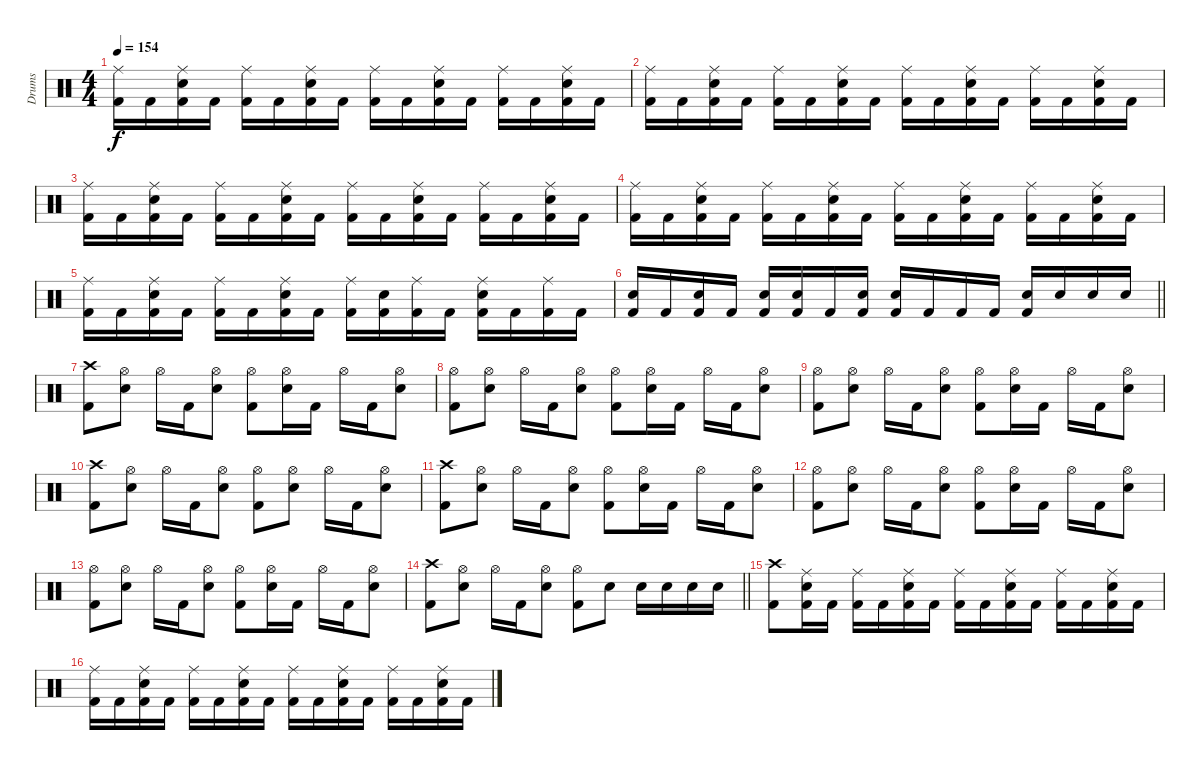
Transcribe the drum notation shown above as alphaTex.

\track ("Drums" "Drums") {instrument percussion}
\staff {score}
\articulation defaults
\ts (4 4)
\tempo 154
\clef neutral
\ks c
("Ride (middle)" "Kick (hit) 2").16{dy f} "Kick (hit) 2".16 ("Ride (middle)" "Snare (hit) 2" "Kick (hit) 2").16 "Kick (hit) 2".16 ("Ride (middle)" "Kick (hit) 2").16 "Kick (hit) 2".16 ("Ride (middle)" "Snare (hit) 2" "Kick (hit) 2").16 "Kick (hit) 2".16 ("Ride (middle)" "Kick (hit) 2").16 "Kick (hit) 2".16 ("Ride (middle)" "Snare (hit) 2" "Kick (hit) 2").16 "Kick (hit) 2".16 ("Ride (middle)" "Kick (hit) 2").16 "Kick (hit) 2".16 ("Ride (middle)" "Snare (hit) 2" "Kick (hit) 2").16 "Kick (hit) 2".16 |
("Ride (middle)" "Kick (hit) 2").16 "Kick (hit) 2".16 ("Ride (middle)" "Snare (hit) 2" "Kick (hit) 2").16 "Kick (hit) 2".16 ("Ride (middle)" "Kick (hit) 2").16 "Kick (hit) 2".16 ("Ride (middle)" "Snare (hit) 2" "Kick (hit) 2").16 "Kick (hit) 2".16 ("Ride (middle)" "Kick (hit) 2").16 "Kick (hit) 2".16 ("Ride (middle)" "Snare (hit) 2" "Kick (hit) 2").16 "Kick (hit) 2".16 ("Ride (middle)" "Kick (hit) 2").16 "Kick (hit) 2".16 ("Ride (middle)" "Snare (hit) 2" "Kick (hit) 2").16 "Kick (hit) 2".16 |
("Ride (middle)" "Kick (hit) 2").16 "Kick (hit) 2".16 ("Ride (middle)" "Snare (hit) 2" "Kick (hit) 2").16 "Kick (hit) 2".16 ("Ride (middle)" "Kick (hit) 2").16 "Kick (hit) 2".16 ("Ride (middle)" "Snare (hit) 2" "Kick (hit) 2").16 "Kick (hit) 2".16 ("Ride (middle)" "Kick (hit) 2").16 "Kick (hit) 2".16 ("Ride (middle)" "Snare (hit) 2" "Kick (hit) 2").16 "Kick (hit) 2".16 ("Ride (middle)" "Kick (hit) 2").16 "Kick (hit) 2".16 ("Ride (middle)" "Snare (hit) 2" "Kick (hit) 2").16 "Kick (hit) 2".16 |
("Ride (middle)" "Kick (hit) 2").16 "Kick (hit) 2".16 ("Ride (middle)" "Snare (hit) 2" "Kick (hit) 2").16 "Kick (hit) 2".16 ("Ride (middle)" "Kick (hit) 2").16 "Kick (hit) 2".16 ("Ride (middle)" "Snare (hit) 2" "Kick (hit) 2").16 "Kick (hit) 2".16 ("Ride (middle)" "Kick (hit) 2").16 "Kick (hit) 2".16 ("Ride (middle)" "Snare (hit) 2" "Kick (hit) 2").16 "Kick (hit) 2".16 ("Ride (middle)" "Kick (hit) 2").16 "Kick (hit) 2".16 ("Ride (middle)" "Snare (hit) 2" "Kick (hit) 2").16 "Kick (hit) 2".16 |
("Ride (middle)" "Kick (hit) 2").16 "Kick (hit) 2".16 ("Ride (middle)" "Snare (hit) 2" "Kick (hit) 2").16 "Kick (hit) 2".16 ("Ride (middle)" "Kick (hit) 2").16 "Kick (hit) 2".16 ("Ride (middle)" "Snare (hit) 2" "Kick (hit) 2").16 "Kick (hit) 2".16 ("Ride (middle)" "Kick (hit) 2").16 ("Snare (hit) 2" "Kick (hit) 2").16 ("Ride (middle)" "Kick (hit) 2").16 "Kick (hit) 2".16 ("Ride (middle)" "Snare (hit) 2" "Kick (hit) 2").16 "Kick (hit) 2".16 ("Ride (middle)" "Kick (hit) 2").16 "Kick (hit) 2".16 |
\barLineRight lightlight
("Snare (hit) 2" "Kick (hit) 2").16 "Kick (hit) 2".16 ("Snare (hit) 2" "Kick (hit) 2").16 "Kick (hit) 2".16 ("Snare (hit) 2" "Kick (hit) 2").16 ("Snare (hit) 2" "Kick (hit) 2").16 "Kick (hit) 2".16 ("Snare (hit) 2" "Kick (hit) 2").16 ("Snare (hit) 2" "Kick (hit) 2").16 "Kick (hit) 2".16 "Kick (hit) 2".16 "Kick (hit) 2".16 ("Snare (hit) 2" "Kick (hit) 2").16 "Snare (hit) 2".16 "Snare (hit) 2".16 "Snare (hit) 2".16 |
("Crash high (hit)" "Kick (hit) 2").8 ("Hi-Hat (open)" "Snare (hit) 2").8 "Hi-Hat (open)".16 "Kick (hit) 2".16 ("Hi-Hat (open)" "Snare (hit) 2").8 ("Hi-Hat (open)" "Kick (hit) 2").8 ("Hi-Hat (open)" "Snare (hit) 2").16 "Kick (hit) 2".16 "Hi-Hat (open)".16 "Kick (hit) 2".16 ("Hi-Hat (open)" "Snare (hit) 2").8 |
("Hi-Hat (open)" "Kick (hit) 2").8 ("Hi-Hat (open)" "Snare (hit) 2").8 "Hi-Hat (open)".16 "Kick (hit) 2".16 ("Hi-Hat (open)" "Snare (hit) 2").8 ("Hi-Hat (open)" "Kick (hit) 2").8 ("Hi-Hat (open)" "Snare (hit) 2").16 "Kick (hit) 2".16 "Hi-Hat (open)".16 "Kick (hit) 2".16 ("Hi-Hat (open)" "Snare (hit) 2").8 |
("Hi-Hat (open)" "Kick (hit) 2").8 ("Hi-Hat (open)" "Snare (hit) 2").8 "Hi-Hat (open)".16 "Kick (hit) 2".16 ("Hi-Hat (open)" "Snare (hit) 2").8 ("Hi-Hat (open)" "Kick (hit) 2").8 ("Hi-Hat (open)" "Snare (hit) 2").16 "Kick (hit) 2".16 "Hi-Hat (open)".16 "Kick (hit) 2".16 ("Hi-Hat (open)" "Snare (hit) 2").8 |
("Crash high (hit)" "Kick (hit) 2").8 ("Hi-Hat (open)" "Snare (hit) 2").8 "Hi-Hat (open)".16 "Kick (hit) 2".16 ("Hi-Hat (open)" "Snare (hit) 2").8 ("Hi-Hat (open)" "Kick (hit) 2").8 ("Hi-Hat (open)" "Snare (hit) 2").8 "Hi-Hat (open)".16 "Kick (hit) 2".16 ("Hi-Hat (open)" "Snare (hit) 2").8 |
("Crash high (hit)" "Kick (hit) 2").8 ("Hi-Hat (open)" "Snare (hit) 2").8 "Hi-Hat (open)".16 "Kick (hit) 2".16 ("Hi-Hat (open)" "Snare (hit) 2").8 ("Hi-Hat (open)" "Kick (hit) 2").8 ("Hi-Hat (open)" "Snare (hit) 2").16 "Kick (hit) 2".16 "Hi-Hat (open)".16 "Kick (hit) 2".16 ("Hi-Hat (open)" "Snare (hit) 2").8 |
("Hi-Hat (open)" "Kick (hit) 2").8 ("Hi-Hat (open)" "Snare (hit) 2").8 "Hi-Hat (open)".16 "Kick (hit) 2".16 ("Hi-Hat (open)" "Snare (hit) 2").8 ("Hi-Hat (open)" "Kick (hit) 2").8 ("Hi-Hat (open)" "Snare (hit) 2").16 "Kick (hit) 2".16 "Hi-Hat (open)".16 "Kick (hit) 2".16 ("Hi-Hat (open)" "Snare (hit) 2").8 |
("Hi-Hat (open)" "Kick (hit) 2").8 ("Hi-Hat (open)" "Snare (hit) 2").8 "Hi-Hat (open)".16 "Kick (hit) 2".16 ("Hi-Hat (open)" "Snare (hit) 2").8 ("Hi-Hat (open)" "Kick (hit) 2").8 ("Hi-Hat (open)" "Snare (hit) 2").16 "Kick (hit) 2".16 "Hi-Hat (open)".16 "Kick (hit) 2".16 ("Hi-Hat (open)" "Snare (hit) 2").8 |
\barLineRight lightlight
("Crash high (hit)" "Kick (hit) 2").8 ("Hi-Hat (open)" "Snare (hit) 2").8 "Hi-Hat (open)".16 "Kick (hit) 2".16 ("Hi-Hat (open)" "Snare (hit) 2").8 ("Hi-Hat (open)" "Kick (hit) 2").8 "Snare (hit) 2".8 "Snare (hit) 2".16 "Snare (hit) 2".16 "Snare (hit) 2".16 "Snare (hit) 2".16 |
("Crash high (hit)" "Kick (hit) 2").8 ("Ride (middle)" "Snare (hit) 2" "Kick (hit) 2").16 "Kick (hit) 2".16 ("Ride (middle)" "Kick (hit) 2").16 "Kick (hit) 2".16 ("Ride (middle)" "Snare (hit) 2" "Kick (hit) 2").16 "Kick (hit) 2".16 ("Ride (middle)" "Kick (hit) 2").16 "Kick (hit) 2".16 ("Ride (middle)" "Snare (hit) 2" "Kick (hit) 2").16 "Kick (hit) 2".16 ("Ride (middle)" "Kick (hit) 2").16 "Kick (hit) 2".16 ("Ride (middle)" "Snare (hit) 2" "Kick (hit) 2").16 "Kick (hit) 2".16 |
("Ride (middle)" "Kick (hit) 2").16 "Kick (hit) 2".16 ("Ride (middle)" "Snare (hit) 2" "Kick (hit) 2").16 "Kick (hit) 2".16 ("Ride (middle)" "Kick (hit) 2").16 "Kick (hit) 2".16 ("Ride (middle)" "Snare (hit) 2" "Kick (hit) 2").16 "Kick (hit) 2".16 ("Ride (middle)" "Kick (hit) 2").16 "Kick (hit) 2".16 ("Ride (middle)" "Snare (hit) 2" "Kick (hit) 2").16 "Kick (hit) 2".16 ("Ride (middle)" "Kick (hit) 2").16 "Kick (hit) 2".16 ("Ride (middle)" "Snare (hit) 2" "Kick (hit) 2").16 "Kick (hit) 2".16
